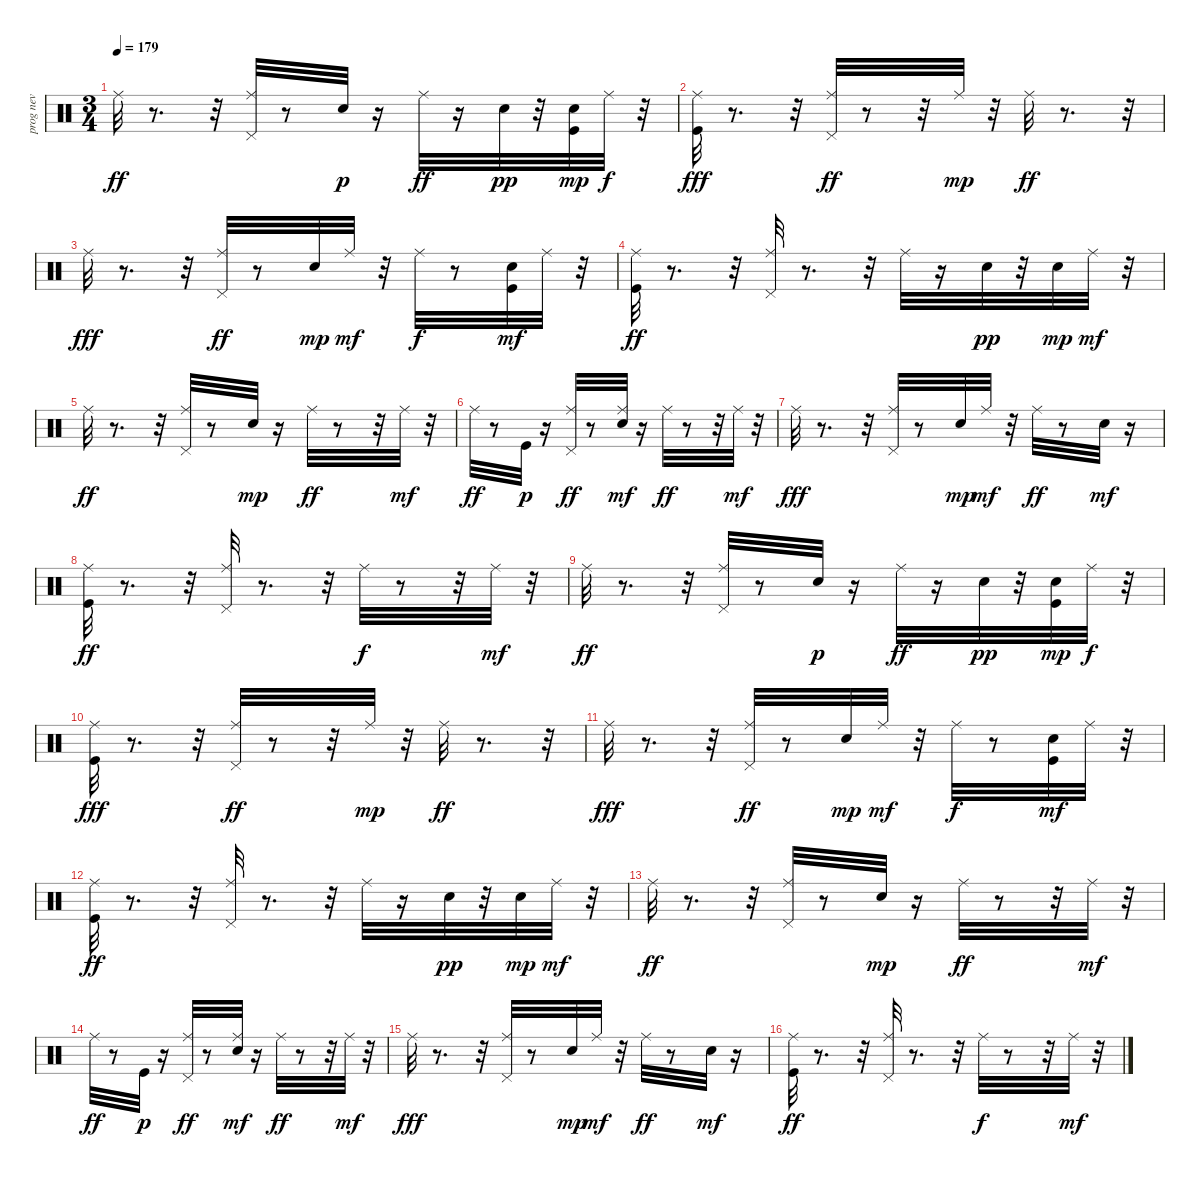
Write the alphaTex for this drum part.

\track ("prog nev" "prog nev") {instrument percussion}
\staff {score}
\articulation defaults
\ts (3 4)
\tempo 179
\clef neutral
\ks c "Ride (middle)".32{dy ff}
r.8{d} r.32 ("Pedal Hi-Hat (hit)" "Ride (middle)").32 r.8 "Hand Clap (hit)".32{dy p} r.16 "Ride (middle)".32{dy ff} r.16 "Snare (hit) 2".32{dy pp} r.32 ("Kick (hit)" "Snare (hit) 2").32{dy mp} "Ride (middle)".32{dy f} r.32 |
("Kick (hit)" "Ride (middle)").32{dy fff} r.8{d} r.32 ("Pedal Hi-Hat (hit)" "Ride (middle)").32{dy ff} r.8 r.32 "Ride (middle)".32{dy mp} r.32 "Ride (middle)".32{dy ff} r.8{d} r.32 |
"Ride (middle)".32{dy fff} r.8{d} r.32 ("Pedal Hi-Hat (hit)" "Ride (middle)").32{dy ff} r.8 "Snare (hit) 2".32{dy mp} "Ride (middle)".32{dy mf} r.32 "Ride (middle)".32{dy f} r.8 ("Kick (hit)" "Snare (hit) 2").32{dy mf} "Ride (middle)".32 r.32 |
("Kick (hit)" "Ride (middle)").32{dy ff} r.8{d} r.32 ("Pedal Hi-Hat (hit)" "Ride (middle)").32 r.8{d} r.32 "Ride (middle)".32 r.16 "Snare (hit) 2".32{dy pp} r.32 "Snare (hit) 2".32{dy mp} "Ride (middle)".32{dy mf} r.32 |
"Ride (middle)".32{dy ff} r.8{d} r.32 ("Pedal Hi-Hat (hit)" "Ride (middle)").32 r.8 "Snare (hit) 2".32{dy mp} r.16 "Ride (middle)".32{dy ff} r.8 r.32 "Ride (middle)".32{dy mf} r.32 |
"Ride (middle)".32{dy ff} r.8 "Kick (hit)".32{dy p} r.16 ("Pedal Hi-Hat (hit)" "Ride (middle)").32{dy ff} r.8 ("Hand Clap (hit)" "Ride (middle)").32{dy mf} r.16 "Ride (middle)".32{dy ff} r.8 r.32 "Ride (middle)".32{dy mf} r.32 |
"Ride (middle)".32{dy fff} r.8{d} r.32 ("Pedal Hi-Hat (hit)" "Ride (middle)").32 r.8 "Snare (hit) 2".32{dy mp} "Ride (middle)".32{dy mf} r.32 "Ride (middle)".32{dy ff} r.8 "Snare (hit) 2".32{dy mf} r.16 |
("Kick (hit)" "Ride (middle)").32{dy ff} r.8{d} r.32 ("Pedal Hi-Hat (hit)" "Ride (middle)").32 r.8{d} r.32 "Ride (middle)".32{dy f} r.8 r.32 "Ride (middle)".32{dy mf} r.32 |
"Ride (middle)".32{dy ff} r.8{d} r.32 ("Pedal Hi-Hat (hit)" "Ride (middle)").32 r.8 "Hand Clap (hit)".32{dy p} r.16 "Ride (middle)".32{dy ff} r.16 "Snare (hit) 2".32{dy pp} r.32 ("Kick (hit)" "Snare (hit) 2").32{dy mp} "Ride (middle)".32{dy f} r.32 |
("Kick (hit)" "Ride (middle)").32{dy fff} r.8{d} r.32 ("Pedal Hi-Hat (hit)" "Ride (middle)").32{dy ff} r.8 r.32 "Ride (middle)".32{dy mp} r.32 "Ride (middle)".32{dy ff} r.8{d} r.32 |
"Ride (middle)".32{dy fff} r.8{d} r.32 ("Pedal Hi-Hat (hit)" "Ride (middle)").32{dy ff} r.8 "Snare (hit) 2".32{dy mp} "Ride (middle)".32{dy mf} r.32 "Ride (middle)".32{dy f} r.8 ("Kick (hit)" "Snare (hit) 2").32{dy mf} "Ride (middle)".32 r.32 |
("Kick (hit)" "Ride (middle)").32{dy ff} r.8{d} r.32 ("Pedal Hi-Hat (hit)" "Ride (middle)").32 r.8{d} r.32 "Ride (middle)".32 r.16 "Snare (hit) 2".32{dy pp} r.32 "Snare (hit) 2".32{dy mp} "Ride (middle)".32{dy mf} r.32 |
"Ride (middle)".32{dy ff} r.8{d} r.32 ("Pedal Hi-Hat (hit)" "Ride (middle)").32 r.8 "Snare (hit) 2".32{dy mp} r.16 "Ride (middle)".32{dy ff} r.8 r.32 "Ride (middle)".32{dy mf} r.32 |
"Ride (middle)".32{dy ff} r.8 "Kick (hit)".32{dy p} r.16 ("Pedal Hi-Hat (hit)" "Ride (middle)").32{dy ff} r.8 ("Hand Clap (hit)" "Ride (middle)").32{dy mf} r.16 "Ride (middle)".32{dy ff} r.8 r.32 "Ride (middle)".32{dy mf} r.32 |
"Ride (middle)".32{dy fff} r.8{d} r.32 ("Pedal Hi-Hat (hit)" "Ride (middle)").32 r.8 "Snare (hit) 2".32{dy mp} "Ride (middle)".32{dy mf} r.32 "Ride (middle)".32{dy ff} r.8 "Snare (hit) 2".32{dy mf} r.16 |
("Kick (hit)" "Ride (middle)").32{dy ff} r.8{d} r.32 ("Pedal Hi-Hat (hit)" "Ride (middle)").32 r.8{d} r.32 "Ride (middle)".32{dy f} r.8 r.32 "Ride (middle)".32{dy mf} r.32
